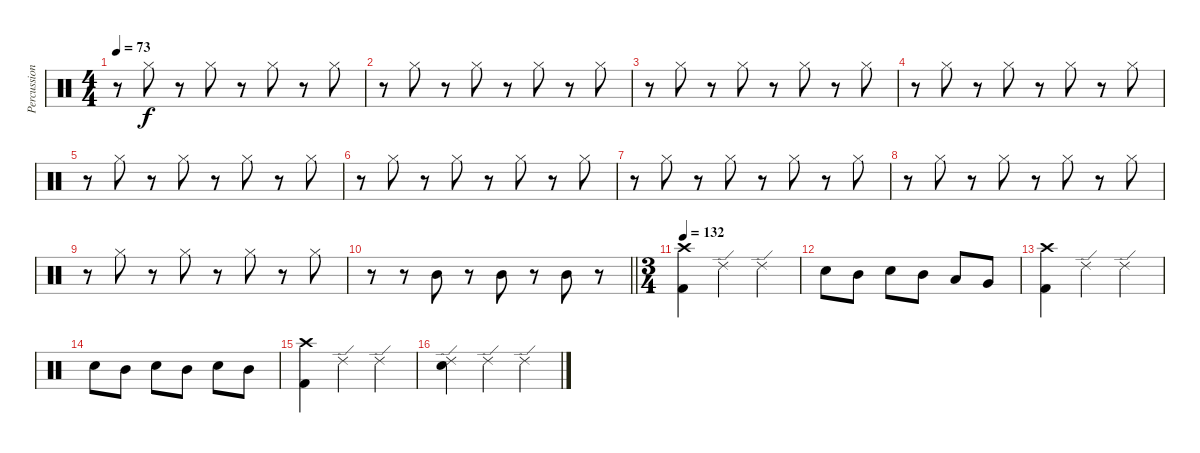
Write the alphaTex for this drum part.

\track ("Percussion" "Percussion") {instrument percussion}
\staff {score}
\articulation defaults
\ts (4 4)
\tempo 73
\clef neutral
\ks c
r.8{dy f} "Hi-Hat (closed)".8 r.8 "Hi-Hat (closed)".8 r.8 "Hi-Hat (closed)".8 r.8 "Hi-Hat (closed)".8 |
r.8 "Hi-Hat (closed)".8 r.8 "Hi-Hat (closed)".8 r.8 "Hi-Hat (closed)".8 r.8 "Hi-Hat (closed)".8 |
r.8 "Hi-Hat (closed)".8 r.8 "Hi-Hat (closed)".8 r.8 "Hi-Hat (closed)".8 r.8 "Hi-Hat (closed)".8 |
r.8 "Hi-Hat (closed)".8 r.8 "Hi-Hat (closed)".8 r.8 "Hi-Hat (closed)".8 r.8 "Hi-Hat (closed)".8 |
r.8 "Hi-Hat (closed)".8 r.8 "Hi-Hat (closed)".8 r.8 "Hi-Hat (closed)".8 r.8 "Hi-Hat (closed)".8 |
r.8 "Hi-Hat (closed)".8 r.8 "Hi-Hat (closed)".8 r.8 "Hi-Hat (closed)".8 r.8 "Hi-Hat (closed)".8 |
r.8 "Hi-Hat (closed)".8 r.8 "Hi-Hat (closed)".8 r.8 "Hi-Hat (closed)".8 r.8 "Hi-Hat (closed)".8 |
r.8 "Hi-Hat (closed)".8 r.8 "Hi-Hat (closed)".8 r.8 "Hi-Hat (closed)".8 r.8 "Hi-Hat (closed)".8 |
r.8 "Hi-Hat (closed)".8 r.8 "Hi-Hat (closed)".8 r.8 "Hi-Hat (closed)".8 r.8 "Hi-Hat (closed)".8 |
\barLineRight lightlight
r.8 r.8 "Mid Tom (hit)".8 r.8 "Mid Tom (hit)".8 r.8 "Mid Tom (hit)".8 r.8 |
\ts (3 4)
\tempo 132
("Crash high (hit)" "Kick (hit) 2").4 "Ride (edge) 2".4 "Ride (edge) 2".4 |
"Snare (hit) 2".8 "Mid Tom (hit)".8 "Snare (hit) 2".8 "Mid Tom (hit)".8 "Low Tom (hit)".8 "Very Low Tom (hit)".8 |
("Crash high (hit)" "Kick (hit) 2").4 "Ride (edge) 2".4 "Ride (edge) 2".4 |
"Snare (hit) 2".8 "Mid Tom (hit)".8 "Snare (hit) 2".8 "Mid Tom (hit)".8 "Snare (hit) 2".8 "Mid Tom (hit)".8 |
("Crash high (hit)" "Kick (hit) 2").4 "Ride (edge) 2".4 "Ride (edge) 2".4 |
("Snare (hit) 2" "Ride (edge) 2").4 "Ride (edge) 2".4 "Ride (edge) 2".4
